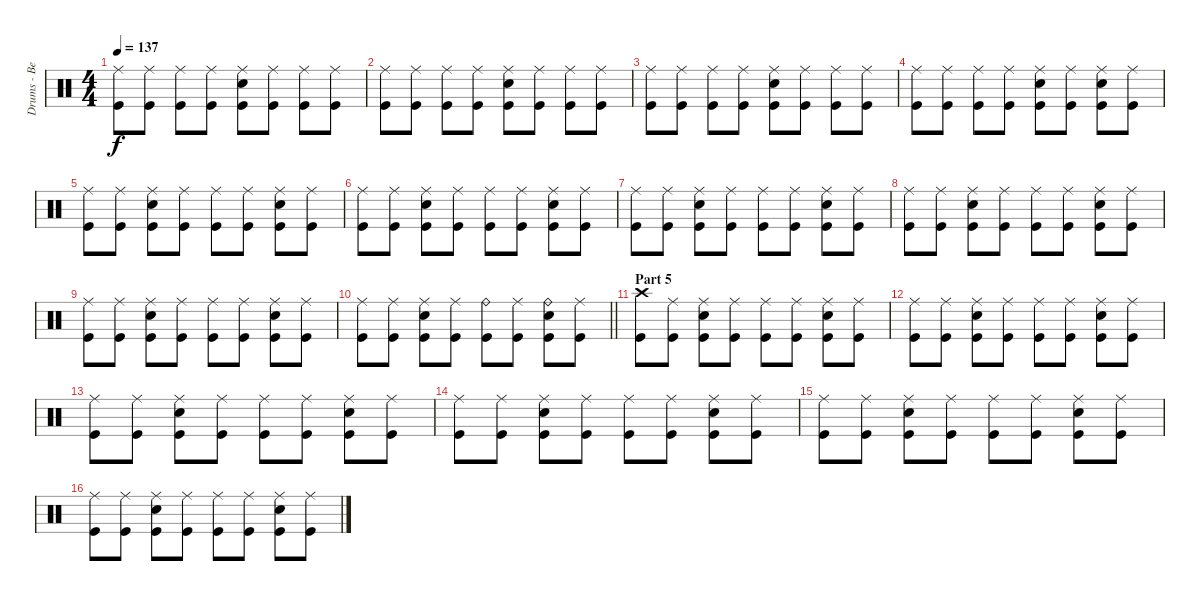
\track ("Drums - Ben Johnston" "Drums - Be") {instrument percussion}
\staff {score}
\articulation defaults
\ts (4 4)
\tempo 137
\clef neutral
\ks c
("Ride (middle)" "Kick (hit)").8{dy f volume 14} ("Ride (middle)" "Kick (hit)").8 ("Ride (middle)" "Kick (hit)").8 ("Ride (middle)" "Kick (hit)").8 ("Ride (middle)" "Snare (hit) 2" "Kick (hit)").8 ("Ride (middle)" "Kick (hit)").8 ("Ride (middle)" "Kick (hit)").8 ("Ride (middle)" "Kick (hit)").8 |
("Ride (middle)" "Kick (hit)").8 ("Ride (middle)" "Kick (hit)").8 ("Ride (middle)" "Kick (hit)").8 ("Ride (middle)" "Kick (hit)").8 ("Ride (middle)" "Snare (hit) 2" "Kick (hit)").8 ("Ride (middle)" "Kick (hit)").8 ("Ride (middle)" "Kick (hit)").8 ("Ride (middle)" "Kick (hit)").8 |
("Ride (middle)" "Kick (hit)").8 ("Ride (middle)" "Kick (hit)").8 ("Ride (middle)" "Kick (hit)").8 ("Ride (middle)" "Kick (hit)").8 ("Ride (middle)" "Snare (hit) 2" "Kick (hit)").8 ("Ride (middle)" "Kick (hit)").8 ("Ride (middle)" "Kick (hit)").8 ("Ride (middle)" "Kick (hit)").8 |
("Ride (middle)" "Kick (hit)").8 ("Ride (middle)" "Kick (hit)").8 ("Ride (middle)" "Kick (hit)").8 ("Ride (middle)" "Kick (hit)").8 ("Ride (middle)" "Snare (hit) 2" "Kick (hit)").8 ("Ride (middle)" "Kick (hit)").8 ("Ride (middle)" "Snare (hit) 2" "Kick (hit)").8 ("Ride (middle)" "Kick (hit)").8 |
("Ride (middle)" "Kick (hit)").8 ("Ride (middle)" "Kick (hit)").8 ("Ride (middle)" "Snare (hit) 2" "Kick (hit)").8 ("Ride (middle)" "Kick (hit)").8 ("Ride (middle)" "Kick (hit)").8 ("Ride (middle)" "Kick (hit)").8 ("Ride (middle)" "Snare (hit) 2" "Kick (hit)").8 ("Ride (middle)" "Kick (hit)").8 |
("Ride (middle)" "Kick (hit)").8 ("Ride (middle)" "Kick (hit)").8 ("Ride (middle)" "Snare (hit) 2" "Kick (hit)").8 ("Ride (middle)" "Kick (hit)").8 ("Ride (middle)" "Kick (hit)").8 ("Ride (middle)" "Kick (hit)").8 ("Ride (middle)" "Snare (hit) 2" "Kick (hit)").8 ("Ride (middle)" "Kick (hit)").8 |
("Ride (middle)" "Kick (hit)").8 ("Ride (middle)" "Kick (hit)").8 ("Ride (middle)" "Snare (hit) 2" "Kick (hit)").8 ("Ride (middle)" "Kick (hit)").8 ("Ride (middle)" "Kick (hit)").8 ("Ride (middle)" "Kick (hit)").8 ("Ride (middle)" "Snare (hit) 2" "Kick (hit)").8 ("Ride (middle)" "Kick (hit)").8 |
("Ride (middle)" "Kick (hit)").8 ("Ride (middle)" "Kick (hit)").8 ("Ride (middle)" "Snare (hit) 2" "Kick (hit)").8 ("Ride (middle)" "Kick (hit)").8 ("Ride (middle)" "Kick (hit)").8 ("Ride (middle)" "Kick (hit)").8 ("Ride (middle)" "Snare (hit) 2" "Kick (hit)").8 ("Ride (middle)" "Kick (hit)").8 |
("Ride (middle)" "Kick (hit)").8 ("Ride (middle)" "Kick (hit)").8 ("Ride (middle)" "Snare (hit) 2" "Kick (hit)").8 ("Ride (middle)" "Kick (hit)").8 ("Ride (middle)" "Kick (hit)").8 ("Ride (middle)" "Kick (hit)").8 ("Ride (middle)" "Snare (hit) 2" "Kick (hit)").8 ("Ride (middle)" "Kick (hit)").8 |
\barLineRight lightlight
("Ride (middle)" "Kick (hit)").8 ("Ride (middle)" "Kick (hit)").8 ("Ride (middle)" "Snare (hit) 2" "Kick (hit)").8 ("Ride (middle)" "Kick (hit)").8 ("Ride (bell)" "Kick (hit)").8 ("Ride (middle)" "Kick (hit)").8 ("Ride (bell)" "Snare (hit) 2" "Kick (hit)").8 ("Ride (middle)" "Kick (hit)").8 |
\section ("" "Part 5")
("Crash high (hit)" "Kick (hit)").8 ("Ride (middle)" "Kick (hit)").8 ("Ride (middle)" "Snare (hit) 2" "Kick (hit)").8 ("Ride (middle)" "Kick (hit)").8 ("Ride (middle)" "Kick (hit)").8 ("Ride (middle)" "Kick (hit)").8 ("Ride (middle)" "Snare (hit) 2" "Kick (hit)").8 ("Ride (middle)" "Kick (hit)").8 |
("Ride (middle)" "Kick (hit)").8 ("Ride (middle)" "Kick (hit)").8 ("Ride (middle)" "Snare (hit) 2" "Kick (hit)").8 ("Ride (middle)" "Kick (hit)").8 ("Ride (middle)" "Kick (hit)").8 ("Ride (middle)" "Kick (hit)").8 ("Ride (middle)" "Snare (hit) 2" "Kick (hit)").8 ("Ride (middle)" "Kick (hit)").8 |
("Ride (middle)" "Kick (hit)").8 ("Ride (middle)" "Kick (hit)").8 ("Ride (middle)" "Snare (hit) 2" "Kick (hit)").8 ("Ride (middle)" "Kick (hit)").8 ("Ride (middle)" "Kick (hit)").8 ("Ride (middle)" "Kick (hit)").8 ("Ride (middle)" "Snare (hit) 2" "Kick (hit)").8 ("Ride (middle)" "Kick (hit)").8 |
("Ride (middle)" "Kick (hit)").8 ("Ride (middle)" "Kick (hit)").8 ("Ride (middle)" "Snare (hit) 2" "Kick (hit)").8 ("Ride (middle)" "Kick (hit)").8 ("Ride (middle)" "Kick (hit)").8 ("Ride (middle)" "Kick (hit)").8 ("Ride (middle)" "Snare (hit) 2" "Kick (hit)").8 ("Ride (middle)" "Kick (hit)").8 |
("Ride (middle)" "Kick (hit)").8 ("Ride (middle)" "Kick (hit)").8 ("Ride (middle)" "Snare (hit) 2" "Kick (hit)").8 ("Ride (middle)" "Kick (hit)").8 ("Ride (middle)" "Kick (hit)").8 ("Ride (middle)" "Kick (hit)").8 ("Ride (middle)" "Snare (hit) 2" "Kick (hit)").8 ("Ride (middle)" "Kick (hit)").8 |
("Ride (middle)" "Kick (hit)").8 ("Ride (middle)" "Kick (hit)").8 ("Ride (middle)" "Snare (hit) 2" "Kick (hit)").8 ("Ride (middle)" "Kick (hit)").8 ("Ride (middle)" "Kick (hit)").8 ("Ride (middle)" "Kick (hit)").8 ("Ride (middle)" "Snare (hit) 2" "Kick (hit)").8 ("Ride (middle)" "Kick (hit)").8
